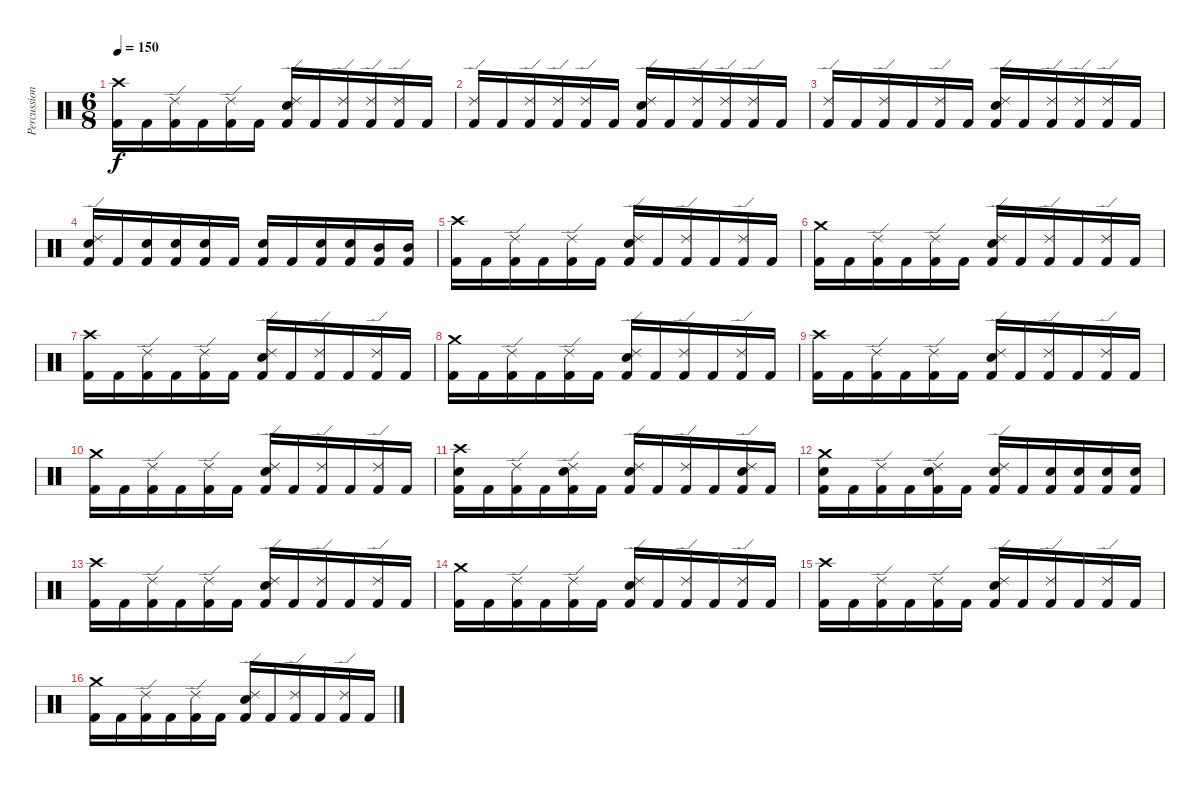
\track ("Percussion" "Percussion") {instrument percussion}
\staff {score}
\articulation defaults
\ts (6 8)
\tempo 150
\clef neutral
\ks c
("Crash high (hit)" "Kick (hit) 2").16{dy f} "Kick (hit) 2".16 ("Ride (edge) 2" "Kick (hit) 2").16 "Kick (hit) 2".16 ("Ride (edge) 2" "Kick (hit) 2").16 "Kick (hit) 2".16 ("Ride (edge) 2" "Electric Snare (hit)" "Kick (hit) 2").16 "Kick (hit) 2".16 ("Ride (edge) 2" "Kick (hit) 2").16 ("Ride (edge) 2" "Kick (hit) 2").16 ("Ride (edge) 2" "Kick (hit) 2").16 "Kick (hit) 2".16 |
("Ride (edge) 2" "Kick (hit) 2").16 "Kick (hit) 2".16 ("Ride (edge) 2" "Kick (hit) 2").16 ("Ride (edge) 2" "Kick (hit) 2").16 ("Ride (edge) 2" "Kick (hit) 2").16 "Kick (hit) 2".16 ("Ride (edge) 2" "Electric Snare (hit)" "Kick (hit) 2").16 "Kick (hit) 2".16 ("Ride (edge) 2" "Kick (hit) 2").16 ("Ride (edge) 2" "Kick (hit) 2").16 ("Ride (edge) 2" "Kick (hit) 2").16 "Kick (hit) 2".16 |
("Ride (edge) 2" "Kick (hit) 2").16 "Kick (hit) 2".16 ("Ride (edge) 2" "Kick (hit) 2").16 "Kick (hit) 2".16 ("Ride (edge) 2" "Kick (hit) 2").16 "Kick (hit) 2".16 ("Ride (edge) 2" "Electric Snare (hit)" "Kick (hit) 2").16 "Kick (hit) 2".16 ("Ride (edge) 2" "Kick (hit) 2").16 ("Ride (edge) 2" "Kick (hit) 2").16 ("Ride (edge) 2" "Kick (hit) 2").16 "Kick (hit) 2".16 |
("Ride (edge) 2" "Electric Snare (hit)" "Kick (hit) 2").16 "Kick (hit) 2".16 ("Electric Snare (hit)" "Kick (hit) 2").16 ("Electric Snare (hit)" "Kick (hit) 2").16 ("Electric Snare (hit)" "Kick (hit) 2").16 "Kick (hit) 2".16 ("Electric Snare (hit)" "Kick (hit) 2").16 "Kick (hit) 2".16 ("Electric Snare (hit)" "Kick (hit) 2").16 ("Electric Snare (hit)" "Kick (hit) 2").16 ("Mid Tom (hit)" "Kick (hit) 2").16 ("Mid Tom (hit)" "Kick (hit) 2").16 |
("Crash high (hit)" "Kick (hit) 2").16 "Kick (hit) 2".16 ("Ride (edge) 2" "Kick (hit) 2").16 "Kick (hit) 2".16 ("Ride (edge) 2" "Kick (hit) 2").16 "Kick (hit) 2".16 ("Ride (edge) 2" "Electric Snare (hit)" "Kick (hit) 2").16 "Kick (hit) 2".16 ("Ride (edge) 2" "Kick (hit) 2").16 "Kick (hit) 2".16 ("Ride (edge) 2" "Kick (hit) 2").16 "Kick (hit) 2".16 |
("Crash medium (hit)" "Kick (hit) 2").16 "Kick (hit) 2".16 ("Ride (edge) 2" "Kick (hit) 2").16 "Kick (hit) 2".16 ("Ride (edge) 2" "Kick (hit) 2").16 "Kick (hit) 2".16 ("Ride (edge) 2" "Electric Snare (hit)" "Kick (hit) 2").16 "Kick (hit) 2".16 ("Ride (edge) 2" "Kick (hit) 2").16 "Kick (hit) 2".16 ("Ride (edge) 2" "Kick (hit) 2").16 "Kick (hit) 2".16 |
("Crash high (hit)" "Kick (hit) 2").16 "Kick (hit) 2".16 ("Ride (edge) 2" "Kick (hit) 2").16 "Kick (hit) 2".16 ("Ride (edge) 2" "Kick (hit) 2").16 "Kick (hit) 2".16 ("Ride (edge) 2" "Electric Snare (hit)" "Kick (hit) 2").16 "Kick (hit) 2".16 ("Ride (edge) 2" "Kick (hit) 2").16 "Kick (hit) 2".16 ("Ride (edge) 2" "Kick (hit) 2").16 "Kick (hit) 2".16 |
("Crash medium (hit)" "Kick (hit) 2").16 "Kick (hit) 2".16 ("Ride (edge) 2" "Kick (hit) 2").16 "Kick (hit) 2".16 ("Ride (edge) 2" "Kick (hit) 2").16 "Kick (hit) 2".16 ("Ride (edge) 2" "Electric Snare (hit)" "Kick (hit) 2").16 "Kick (hit) 2".16 ("Ride (edge) 2" "Kick (hit) 2").16 "Kick (hit) 2".16 ("Ride (edge) 2" "Kick (hit) 2").16 "Kick (hit) 2".16 |
("Crash high (hit)" "Kick (hit) 2").16 "Kick (hit) 2".16 ("Ride (edge) 2" "Kick (hit) 2").16 "Kick (hit) 2".16 ("Ride (edge) 2" "Kick (hit) 2").16 "Kick (hit) 2".16 ("Ride (edge) 2" "Electric Snare (hit)" "Kick (hit) 2").16 "Kick (hit) 2".16 ("Ride (edge) 2" "Kick (hit) 2").16 "Kick (hit) 2".16 ("Ride (edge) 2" "Kick (hit) 2").16 "Kick (hit) 2".16 |
("Crash medium (hit)" "Kick (hit) 2").16 "Kick (hit) 2".16 ("Ride (edge) 2" "Kick (hit) 2").16 "Kick (hit) 2".16 ("Ride (edge) 2" "Kick (hit) 2").16 "Kick (hit) 2".16 ("Ride (edge) 2" "Electric Snare (hit)" "Kick (hit) 2").16 "Kick (hit) 2".16 ("Ride (edge) 2" "Kick (hit) 2").16 "Kick (hit) 2".16 ("Ride (edge) 2" "Kick (hit) 2").16 "Kick (hit) 2".16 |
("Crash high (hit)" "Electric Snare (hit)" "Kick (hit) 2").16 "Kick (hit) 2".16 ("Ride (edge) 2" "Kick (hit) 2").16 "Kick (hit) 2".16 ("Ride (edge) 2" "Electric Snare (hit)" "Kick (hit) 2").16 "Kick (hit) 2".16 ("Ride (edge) 2" "Electric Snare (hit)" "Kick (hit) 2").16 "Kick (hit) 2".16 ("Ride (edge) 2" "Kick (hit) 2").16 "Kick (hit) 2".16 ("Ride (edge) 2" "Electric Snare (hit)" "Kick (hit) 2").16 "Kick (hit) 2".16 |
("Crash medium (hit)" "Electric Snare (hit)" "Kick (hit) 2").16 "Kick (hit) 2".16 ("Ride (edge) 2" "Kick (hit) 2").16 "Kick (hit) 2".16 ("Ride (edge) 2" "Electric Snare (hit)" "Kick (hit) 2").16 "Kick (hit) 2".16 ("Ride (edge) 2" "Electric Snare (hit)" "Kick (hit) 2").16 "Kick (hit) 2".16 ("Electric Snare (hit)" "Kick (hit) 2").16 ("Electric Snare (hit)" "Kick (hit) 2").16 ("Electric Snare (hit)" "Kick (hit) 2").16 ("Electric Snare (hit)" "Kick (hit) 2").16 |
("Crash high (hit)" "Kick (hit) 2").16 "Kick (hit) 2".16 ("Ride (edge) 2" "Kick (hit) 2").16 "Kick (hit) 2".16 ("Ride (edge) 2" "Kick (hit) 2").16 "Kick (hit) 2".16 ("Ride (edge) 2" "Electric Snare (hit)" "Kick (hit) 2").16 "Kick (hit) 2".16 ("Ride (edge) 2" "Kick (hit) 2").16 "Kick (hit) 2".16 ("Ride (edge) 2" "Kick (hit) 2").16 "Kick (hit) 2".16 |
("Crash medium (hit)" "Kick (hit) 2").16 "Kick (hit) 2".16 ("Ride (edge) 2" "Kick (hit) 2").16 "Kick (hit) 2".16 ("Ride (edge) 2" "Kick (hit) 2").16 "Kick (hit) 2".16 ("Ride (edge) 2" "Electric Snare (hit)" "Kick (hit) 2").16 "Kick (hit) 2".16 ("Ride (edge) 2" "Kick (hit) 2").16 "Kick (hit) 2".16 ("Ride (edge) 2" "Kick (hit) 2").16 "Kick (hit) 2".16 |
("Crash high (hit)" "Kick (hit) 2").16 "Kick (hit) 2".16 ("Ride (edge) 2" "Kick (hit) 2").16 "Kick (hit) 2".16 ("Ride (edge) 2" "Kick (hit) 2").16 "Kick (hit) 2".16 ("Ride (edge) 2" "Electric Snare (hit)" "Kick (hit) 2").16 "Kick (hit) 2".16 ("Ride (edge) 2" "Kick (hit) 2").16 "Kick (hit) 2".16 ("Ride (edge) 2" "Kick (hit) 2").16 "Kick (hit) 2".16 |
("Crash medium (hit)" "Kick (hit) 2").16 "Kick (hit) 2".16 ("Ride (edge) 2" "Kick (hit) 2").16 "Kick (hit) 2".16 ("Ride (edge) 2" "Kick (hit) 2").16 "Kick (hit) 2".16 ("Ride (edge) 2" "Electric Snare (hit)" "Kick (hit) 2").16 "Kick (hit) 2".16 ("Ride (edge) 2" "Kick (hit) 2").16 "Kick (hit) 2".16 ("Ride (edge) 2" "Kick (hit) 2").16 "Kick (hit) 2".16
